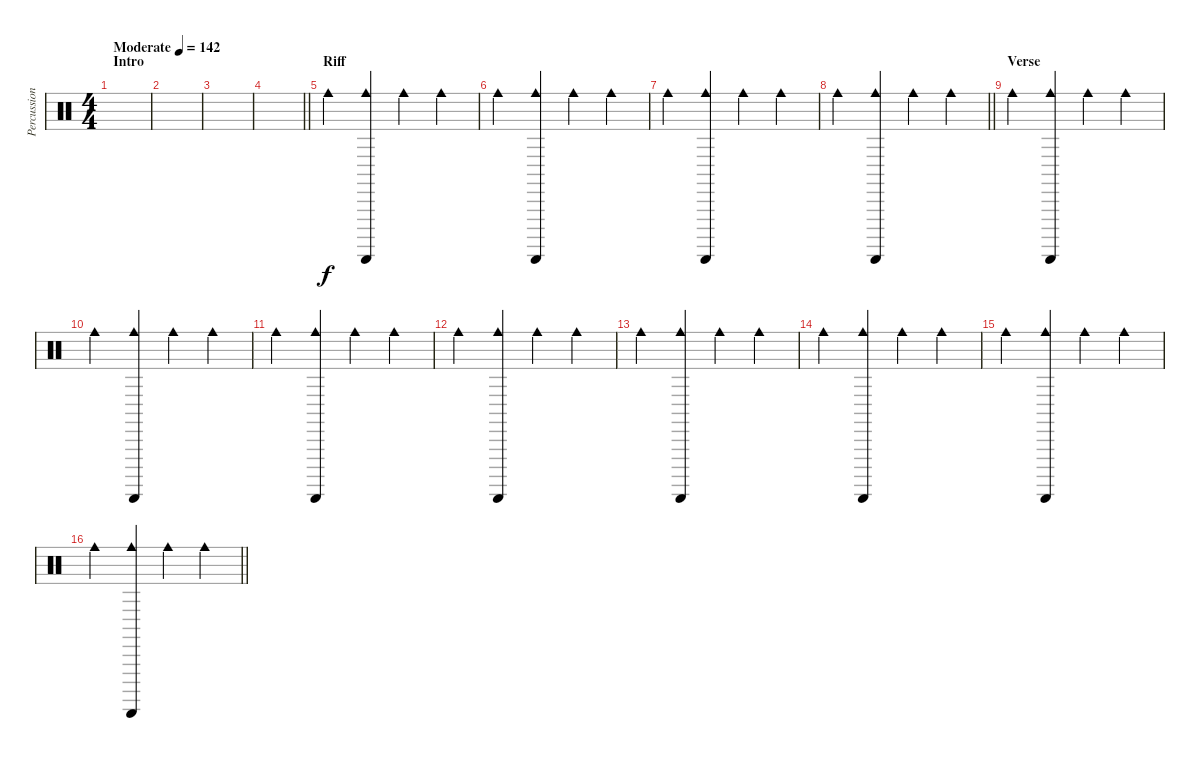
\track ("Percussion" "Percussion") {instrument percussion}
\staff {score}
\articulation defaults
\ts (4 4)
\section ("" "Intro")
\tempo (142 "Moderate")
\clef neutral
\ks c
|
|
|
\barLineRight lightlight
|
\section ("" "Riff")
"Cowbell medium (hit)".4 ("Guiro (scrap-return)" "Cowbell medium (hit)").4 "Cowbell medium (hit)".4 "Cowbell medium (hit)".4 |
"Cowbell medium (hit)".4 ("Guiro (scrap-return)" "Cowbell medium (hit)").4 "Cowbell medium (hit)".4 "Cowbell medium (hit)".4 |
"Cowbell medium (hit)".4 ("Guiro (scrap-return)" "Cowbell medium (hit)").4 "Cowbell medium (hit)".4 "Cowbell medium (hit)".4 |
\barLineRight lightlight "Cowbell medium (hit)".4
("Guiro (scrap-return)" "Cowbell medium (hit)").4 "Cowbell medium (hit)".4 "Cowbell medium (hit)".4 |
\section ("" "Verse")
"Cowbell medium (hit)".4 ("Guiro (scrap-return)" "Cowbell medium (hit)").4 "Cowbell medium (hit)".4 "Cowbell medium (hit)".4 |
"Cowbell medium (hit)".4 ("Guiro (scrap-return)" "Cowbell medium (hit)").4 "Cowbell medium (hit)".4 "Cowbell medium (hit)".4 |
"Cowbell medium (hit)".4 ("Guiro (scrap-return)" "Cowbell medium (hit)").4 "Cowbell medium (hit)".4 "Cowbell medium (hit)".4 |
"Cowbell medium (hit)".4 ("Guiro (scrap-return)" "Cowbell medium (hit)").4 "Cowbell medium (hit)".4 "Cowbell medium (hit)".4 |
"Cowbell medium (hit)".4 ("Guiro (scrap-return)" "Cowbell medium (hit)").4 "Cowbell medium (hit)".4 "Cowbell medium (hit)".4 |
"Cowbell medium (hit)".4 ("Guiro (scrap-return)" "Cowbell medium (hit)").4 "Cowbell medium (hit)".4 "Cowbell medium (hit)".4 |
"Cowbell medium (hit)".4 ("Guiro (scrap-return)" "Cowbell medium (hit)").4 "Cowbell medium (hit)".4 "Cowbell medium (hit)".4 |
\barLineRight lightlight "Cowbell medium (hit)".4
("Guiro (scrap-return)" "Cowbell medium (hit)").4 "Cowbell medium (hit)".4 "Cowbell medium (hit)".4
